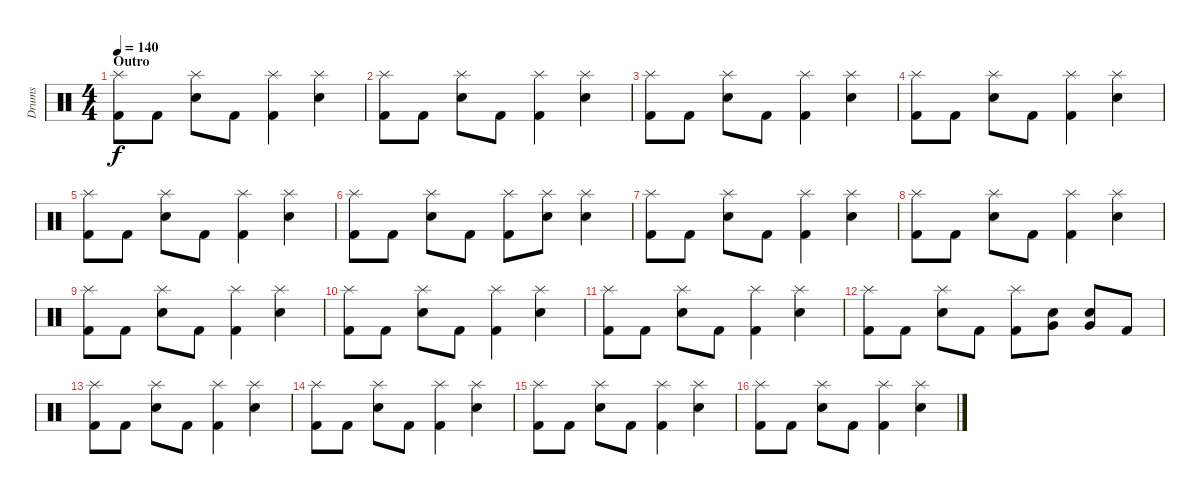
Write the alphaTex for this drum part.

\track ("Drums" "Drums") {instrument percussion}
\staff {score}
\articulation defaults
\ts (4 4)
\section ("" "Outro")
\tempo 140
\clef neutral
\ks c
("Splash (hit)" "Kick (hit) 2").8{dy f} "Kick (hit) 2".8 ("Splash (hit)" "Electric Snare (hit)").8 "Kick (hit) 2".8 ("Splash (hit)" "Kick (hit) 2").4 ("Splash (hit)" "Electric Snare (hit)").4 |
("Splash (hit)" "Kick (hit) 2").8 "Kick (hit) 2".8 ("Splash (hit)" "Electric Snare (hit)").8 "Kick (hit) 2".8 ("Splash (hit)" "Kick (hit) 2").4 ("Splash (hit)" "Electric Snare (hit)").4 |
("Splash (hit)" "Kick (hit) 2").8 "Kick (hit) 2".8 ("Splash (hit)" "Electric Snare (hit)").8 "Kick (hit) 2".8 ("Splash (hit)" "Kick (hit) 2").4 ("Splash (hit)" "Electric Snare (hit)").4 |
("Splash (hit)" "Kick (hit) 2").8 "Kick (hit) 2".8 ("Splash (hit)" "Electric Snare (hit)").8 "Kick (hit) 2".8 ("Splash (hit)" "Kick (hit) 2").4 ("Splash (hit)" "Electric Snare (hit)").4 |
("Splash (hit)" "Kick (hit) 2").8 "Kick (hit) 2".8 ("Splash (hit)" "Electric Snare (hit)").8 "Kick (hit) 2".8 ("Splash (hit)" "Kick (hit) 2").4 ("Splash (hit)" "Electric Snare (hit)").4 |
("Splash (hit)" "Kick (hit) 2").8 "Kick (hit) 2".8 ("Splash (hit)" "Electric Snare (hit)").8 "Kick (hit) 2".8 ("Splash (hit)" "Kick (hit) 2").8 ("Splash (hit)" "Electric Snare (hit)").8 ("Splash (hit)" "Electric Snare (hit)").4 |
("Splash (hit)" "Kick (hit) 2").8 "Kick (hit) 2".8 ("Splash (hit)" "Electric Snare (hit)").8 "Kick (hit) 2".8 ("Splash (hit)" "Kick (hit) 2").4 ("Splash (hit)" "Electric Snare (hit)").4 |
("Splash (hit)" "Kick (hit) 2").8 "Kick (hit) 2".8 ("Splash (hit)" "Electric Snare (hit)").8 "Kick (hit) 2".8 ("Splash (hit)" "Kick (hit) 2").4 ("Splash (hit)" "Electric Snare (hit)").4 |
("Splash (hit)" "Kick (hit) 2").8 "Kick (hit) 2".8 ("Splash (hit)" "Electric Snare (hit)").8 "Kick (hit) 2".8 ("Splash (hit)" "Kick (hit) 2").4 ("Splash (hit)" "Electric Snare (hit)").4 |
("Splash (hit)" "Kick (hit) 2").8 "Kick (hit) 2".8 ("Splash (hit)" "Electric Snare (hit)").8 "Kick (hit) 2".8 ("Splash (hit)" "Kick (hit) 2").4 ("Splash (hit)" "Electric Snare (hit)").4 |
("Splash (hit)" "Kick (hit) 2").8 "Kick (hit) 2".8 ("Splash (hit)" "Electric Snare (hit)").8 "Kick (hit) 2".8 ("Splash (hit)" "Kick (hit) 2").4 ("Splash (hit)" "Electric Snare (hit)").4 |
("Splash (hit)" "Kick (hit) 2").8 "Kick (hit) 2".8 ("Splash (hit)" "Electric Snare (hit)").8 "Kick (hit) 2".8 ("Splash (hit)" "Kick (hit) 2").8 ("Electric Snare (hit)" "Very Low Tom (hit)").8 ("Electric Snare (hit)" "Very Low Tom (hit)").8 "Kick (hit) 2".8 |
("Splash (hit)" "Kick (hit) 2").8 "Kick (hit) 2".8 ("Splash (hit)" "Electric Snare (hit)").8 "Kick (hit) 2".8 ("Splash (hit)" "Kick (hit) 2").4 ("Splash (hit)" "Electric Snare (hit)").4 |
("Splash (hit)" "Kick (hit) 2").8 "Kick (hit) 2".8 ("Splash (hit)" "Electric Snare (hit)").8 "Kick (hit) 2".8 ("Splash (hit)" "Kick (hit) 2").4 ("Splash (hit)" "Electric Snare (hit)").4 |
("Splash (hit)" "Kick (hit) 2").8 "Kick (hit) 2".8 ("Splash (hit)" "Electric Snare (hit)").8 "Kick (hit) 2".8 ("Splash (hit)" "Kick (hit) 2").4 ("Splash (hit)" "Electric Snare (hit)").4 |
("Splash (hit)" "Kick (hit) 2").8 "Kick (hit) 2".8 ("Splash (hit)" "Electric Snare (hit)").8 "Kick (hit) 2".8 ("Splash (hit)" "Kick (hit) 2").4 ("Splash (hit)" "Electric Snare (hit)").4
